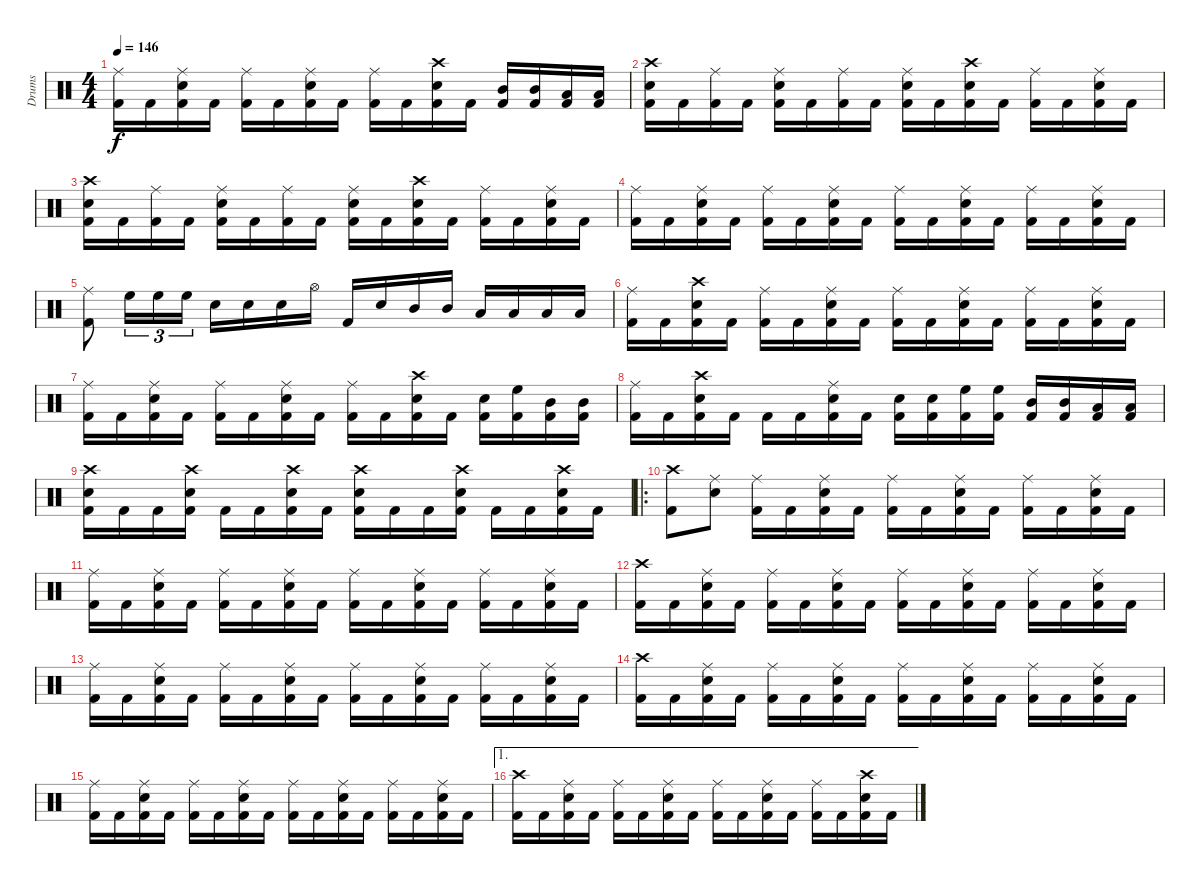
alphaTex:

\track ("Drums" "Drums") {instrument percussion}
\staff {score}
\articulation defaults
\ts (4 4)
\tempo 146
\clef neutral
\ks c
("Ride (middle)" "Kick (hit) 2").16{dy f} "Kick (hit) 2".16 ("Ride (middle)" "Snare (hit) 2" "Kick (hit) 2").16 "Kick (hit) 2".16 ("Ride (middle)" "Kick (hit) 2").16 "Kick (hit) 2".16 ("Ride (middle)" "Snare (hit) 2" "Kick (hit) 2").16 "Kick (hit) 2".16 ("Ride (middle)" "Kick (hit) 2").16 "Kick (hit) 2".16 ("Crash high (hit)" "Snare (hit) 2" "Kick (hit) 2").16 "Kick (hit) 2".16 ("Mid Tom (hit)" "Kick (hit) 2").16 ("Mid Tom (hit)" "Kick (hit) 2").16 ("Low Floor Tom (hit)" "Kick (hit) 2").16 ("Low Floor Tom (hit)" "Kick (hit) 2").16 |
("Crash high (hit)" "Snare (hit) 2" "Kick (hit) 2").16 "Kick (hit) 2".16 ("Ride (middle)" "Kick (hit) 2").16 "Kick (hit) 2".16 ("Ride (middle)" "Snare (hit) 2" "Kick (hit) 2").16 "Kick (hit) 2".16 ("Ride (middle)" "Kick (hit) 2").16 "Kick (hit) 2".16 ("Ride (middle)" "Snare (hit) 2" "Kick (hit) 2").16 "Kick (hit) 2".16 ("Crash high (hit)" "Snare (hit) 2" "Kick (hit) 2").16 "Kick (hit) 2".16 ("Ride (middle)" "Kick (hit) 2").16 "Kick (hit) 2".16 ("Ride (middle)" "Snare (hit) 2" "Kick (hit) 2").16 "Kick (hit) 2".16 |
("Crash high (hit)" "Snare (hit) 2" "Kick (hit) 2").16 "Kick (hit) 2".16 ("Ride (middle)" "Kick (hit) 2").16 "Kick (hit) 2".16 ("Ride (middle)" "Snare (hit) 2" "Kick (hit) 2").16 "Kick (hit) 2".16 ("Ride (middle)" "Kick (hit) 2").16 "Kick (hit) 2".16 ("Ride (middle)" "Snare (hit) 2" "Kick (hit) 2").16 "Kick (hit) 2".16 ("Crash high (hit)" "Snare (hit) 2" "Kick (hit) 2").16 "Kick (hit) 2".16 ("Ride (middle)" "Kick (hit) 2").16 "Kick (hit) 2".16 ("Ride (middle)" "Snare (hit) 2" "Kick (hit) 2").16 "Kick (hit) 2".16 |
("Ride (middle)" "Kick (hit) 2").16 "Kick (hit) 2".16 ("Ride (middle)" "Snare (hit) 2" "Kick (hit) 2").16 "Kick (hit) 2".16 ("Ride (middle)" "Kick (hit) 2").16 "Kick (hit) 2".16 ("Ride (middle)" "Snare (hit) 2" "Kick (hit) 2").16 "Kick (hit) 2".16 ("Ride (middle)" "Kick (hit) 2").16 "Kick (hit) 2".16 ("Ride (middle)" "Snare (hit) 2" "Kick (hit) 2").16 "Kick (hit) 2".16 ("Ride (middle)" "Kick (hit) 2").16 "Kick (hit) 2".16 ("Ride (middle)" "Snare (hit) 2" "Kick (hit) 2").16 "Kick (hit) 2".16 |
("Ride (middle)" "Kick (hit) 2").8 "High Floor Tom (hit)".16{tu (3 2)} "High Floor Tom (hit)".16{tu (3 2)} "High Floor Tom (hit)".16{tu (3 2)} "Snare (hit) 2".16 "Snare (hit) 2".16 "Snare (hit) 2".16 "Hi-Hat (open)".16 "Kick (hit) 2".16 "Snare (hit) 2".16 "Mid Tom (hit)".16 "Mid Tom (hit)".16 "Low Floor Tom (hit)".16 "Low Floor Tom (hit)".16 "Low Floor Tom (hit)".16 "Low Floor Tom (hit)".16 |
("Ride (middle)" "Kick (hit) 2").16 "Kick (hit) 2".16 ("Crash high (hit)" "Snare (hit) 2" "Kick (hit) 2").16 "Kick (hit) 2".16 ("Ride (middle)" "Kick (hit) 2").16 "Kick (hit) 2".16 ("Ride (middle)" "Snare (hit) 2" "Kick (hit) 2").16 "Kick (hit) 2".16 ("Ride (middle)" "Kick (hit) 2").16 "Kick (hit) 2".16 ("Ride (middle)" "Snare (hit) 2" "Kick (hit) 2").16 "Kick (hit) 2".16 ("Ride (middle)" "Kick (hit) 2").16 "Kick (hit) 2".16 ("Ride (middle)" "Snare (hit) 2" "Kick (hit) 2").16 "Kick (hit) 2".16 |
("Ride (middle)" "Kick (hit) 2").16 "Kick (hit) 2".16 ("Ride (middle)" "Snare (hit) 2" "Kick (hit) 2").16 "Kick (hit) 2".16 ("Ride (middle)" "Kick (hit) 2").16 "Kick (hit) 2".16 ("Ride (middle)" "Snare (hit) 2" "Kick (hit) 2").16 "Kick (hit) 2".16 ("Ride (middle)" "Kick (hit) 2").16 "Kick (hit) 2".16 ("Crash high (hit)" "Snare (hit) 2" "Kick (hit) 2").16 "Kick (hit) 2".16 ("Snare (hit) 2" "Kick (hit) 2").16 ("High Floor Tom (hit)" "Kick (hit) 2").16 ("Mid Tom (hit)" "Kick (hit) 2").16 ("Mid Tom (hit)" "Kick (hit) 2").16 |
("Ride (middle)" "Kick (hit) 2").16 "Kick (hit) 2".16 ("Crash high (hit)" "Snare (hit) 2" "Kick (hit) 2").16 "Kick (hit) 2".16 "Kick (hit) 2".16 "Kick (hit) 2".16 ("Ride (middle)" "Snare (hit) 2" "Kick (hit) 2").16 "Kick (hit) 2".16 ("Snare (hit) 2" "Kick (hit) 2").16 ("Snare (hit) 2" "Kick (hit) 2").16 ("High Floor Tom (hit)" "Kick (hit) 2").16 ("High Floor Tom (hit)" "Kick (hit) 2").16 ("Mid Tom (hit)" "Kick (hit) 2").16 ("Mid Tom (hit)" "Kick (hit) 2").16 ("Low Floor Tom (hit)" "Kick (hit) 2").16 ("Low Floor Tom (hit)" "Kick (hit) 2").16 |
("Crash high (hit)" "Snare (hit) 2" "Kick (hit) 2").16 "Kick (hit) 2".16 "Kick (hit) 2".16 ("Crash high (hit)" "Snare (hit) 2" "Kick (hit) 2").16 "Kick (hit) 2".16 "Kick (hit) 2".16 ("Crash high (hit)" "Snare (hit) 2" "Kick (hit) 2").16 "Kick (hit) 2".16 ("Crash high (hit)" "Snare (hit) 2" "Kick (hit) 2").16 "Kick (hit) 2".16 "Kick (hit) 2".16 ("Crash high (hit)" "Snare (hit) 2" "Kick (hit) 2").16 "Kick (hit) 2".16 "Kick (hit) 2".16 ("Crash high (hit)" "Snare (hit) 2" "Kick (hit) 2").16 "Kick (hit) 2".16 |
\ro
("Crash high (hit)" "Kick (hit) 2").8 ("Ride (middle)" "Snare (hit) 2").8 ("Ride (middle)" "Kick (hit) 2").16 "Kick (hit) 2".16 ("Ride (middle)" "Snare (hit) 2" "Kick (hit) 2").16 "Kick (hit) 2".16 ("Ride (middle)" "Kick (hit) 2").16 "Kick (hit) 2".16 ("Ride (middle)" "Snare (hit) 2" "Kick (hit) 2").16 "Kick (hit) 2".16 ("Ride (middle)" "Kick (hit) 2").16 "Kick (hit) 2".16 ("Ride (middle)" "Snare (hit) 2" "Kick (hit) 2").16 "Kick (hit) 2".16 |
("Ride (middle)" "Kick (hit) 2").16 "Kick (hit) 2".16 ("Ride (middle)" "Snare (hit) 2" "Kick (hit) 2").16 "Kick (hit) 2".16 ("Ride (middle)" "Kick (hit) 2").16 "Kick (hit) 2".16 ("Ride (middle)" "Snare (hit) 2" "Kick (hit) 2").16 "Kick (hit) 2".16 ("Ride (middle)" "Kick (hit) 2").16 "Kick (hit) 2".16 ("Ride (middle)" "Snare (hit) 2" "Kick (hit) 2").16 "Kick (hit) 2".16 ("Ride (middle)" "Kick (hit) 2").16 "Kick (hit) 2".16 ("Ride (middle)" "Snare (hit) 2" "Kick (hit) 2").16 "Kick (hit) 2".16 |
("Crash high (hit)" "Kick (hit) 2").16 "Kick (hit) 2".16 ("Ride (middle)" "Snare (hit) 2" "Kick (hit) 2").16 "Kick (hit) 2".16 ("Ride (middle)" "Kick (hit) 2").16 "Kick (hit) 2".16 ("Ride (middle)" "Snare (hit) 2" "Kick (hit) 2").16 "Kick (hit) 2".16 ("Ride (middle)" "Kick (hit) 2").16 "Kick (hit) 2".16 ("Ride (middle)" "Snare (hit) 2" "Kick (hit) 2").16 "Kick (hit) 2".16 ("Ride (middle)" "Kick (hit) 2").16 "Kick (hit) 2".16 ("Ride (middle)" "Snare (hit) 2" "Kick (hit) 2").16 "Kick (hit) 2".16 |
("Ride (middle)" "Kick (hit) 2").16 "Kick (hit) 2".16 ("Ride (middle)" "Snare (hit) 2" "Kick (hit) 2").16 "Kick (hit) 2".16 ("Ride (middle)" "Kick (hit) 2").16 "Kick (hit) 2".16 ("Ride (middle)" "Snare (hit) 2" "Kick (hit) 2").16 "Kick (hit) 2".16 ("Ride (middle)" "Kick (hit) 2").16 "Kick (hit) 2".16 ("Ride (middle)" "Snare (hit) 2" "Kick (hit) 2").16 "Kick (hit) 2".16 ("Ride (middle)" "Kick (hit) 2").16 "Kick (hit) 2".16 ("Ride (middle)" "Snare (hit) 2" "Kick (hit) 2").16 "Kick (hit) 2".16 |
("Crash high (hit)" "Kick (hit) 2").16 "Kick (hit) 2".16 ("Ride (middle)" "Snare (hit) 2" "Kick (hit) 2").16 "Kick (hit) 2".16 ("Ride (middle)" "Kick (hit) 2").16 "Kick (hit) 2".16 ("Ride (middle)" "Snare (hit) 2" "Kick (hit) 2").16 "Kick (hit) 2".16 ("Ride (middle)" "Kick (hit) 2").16 "Kick (hit) 2".16 ("Ride (middle)" "Snare (hit) 2" "Kick (hit) 2").16 "Kick (hit) 2".16 ("Ride (middle)" "Kick (hit) 2").16 "Kick (hit) 2".16 ("Ride (middle)" "Snare (hit) 2" "Kick (hit) 2").16 "Kick (hit) 2".16 |
("Ride (middle)" "Kick (hit) 2").16 "Kick (hit) 2".16 ("Ride (middle)" "Snare (hit) 2" "Kick (hit) 2").16 "Kick (hit) 2".16 ("Ride (middle)" "Kick (hit) 2").16 "Kick (hit) 2".16 ("Ride (middle)" "Snare (hit) 2" "Kick (hit) 2").16 "Kick (hit) 2".16 ("Ride (middle)" "Kick (hit) 2").16 "Kick (hit) 2".16 ("Ride (middle)" "Snare (hit) 2" "Kick (hit) 2").16 "Kick (hit) 2".16 ("Ride (middle)" "Kick (hit) 2").16 "Kick (hit) 2".16 ("Ride (middle)" "Snare (hit) 2" "Kick (hit) 2").16 "Kick (hit) 2".16 |
\ae 1
("Crash high (hit)" "Kick (hit) 2").16 "Kick (hit) 2".16 ("Ride (middle)" "Snare (hit) 2" "Kick (hit) 2").16 "Kick (hit) 2".16 ("Ride (middle)" "Kick (hit) 2").16 "Kick (hit) 2".16 ("Ride (middle)" "Snare (hit) 2" "Kick (hit) 2").16 "Kick (hit) 2".16 ("Ride (middle)" "Kick (hit) 2").16 "Kick (hit) 2".16 ("Ride (middle)" "Snare (hit) 2" "Kick (hit) 2").16 "Kick (hit) 2".16 ("Ride (middle)" "Kick (hit) 2").16 "Kick (hit) 2".16 ("Crash high (hit)" "Snare (hit) 2" "Kick (hit) 2").16 "Kick (hit) 2".16
